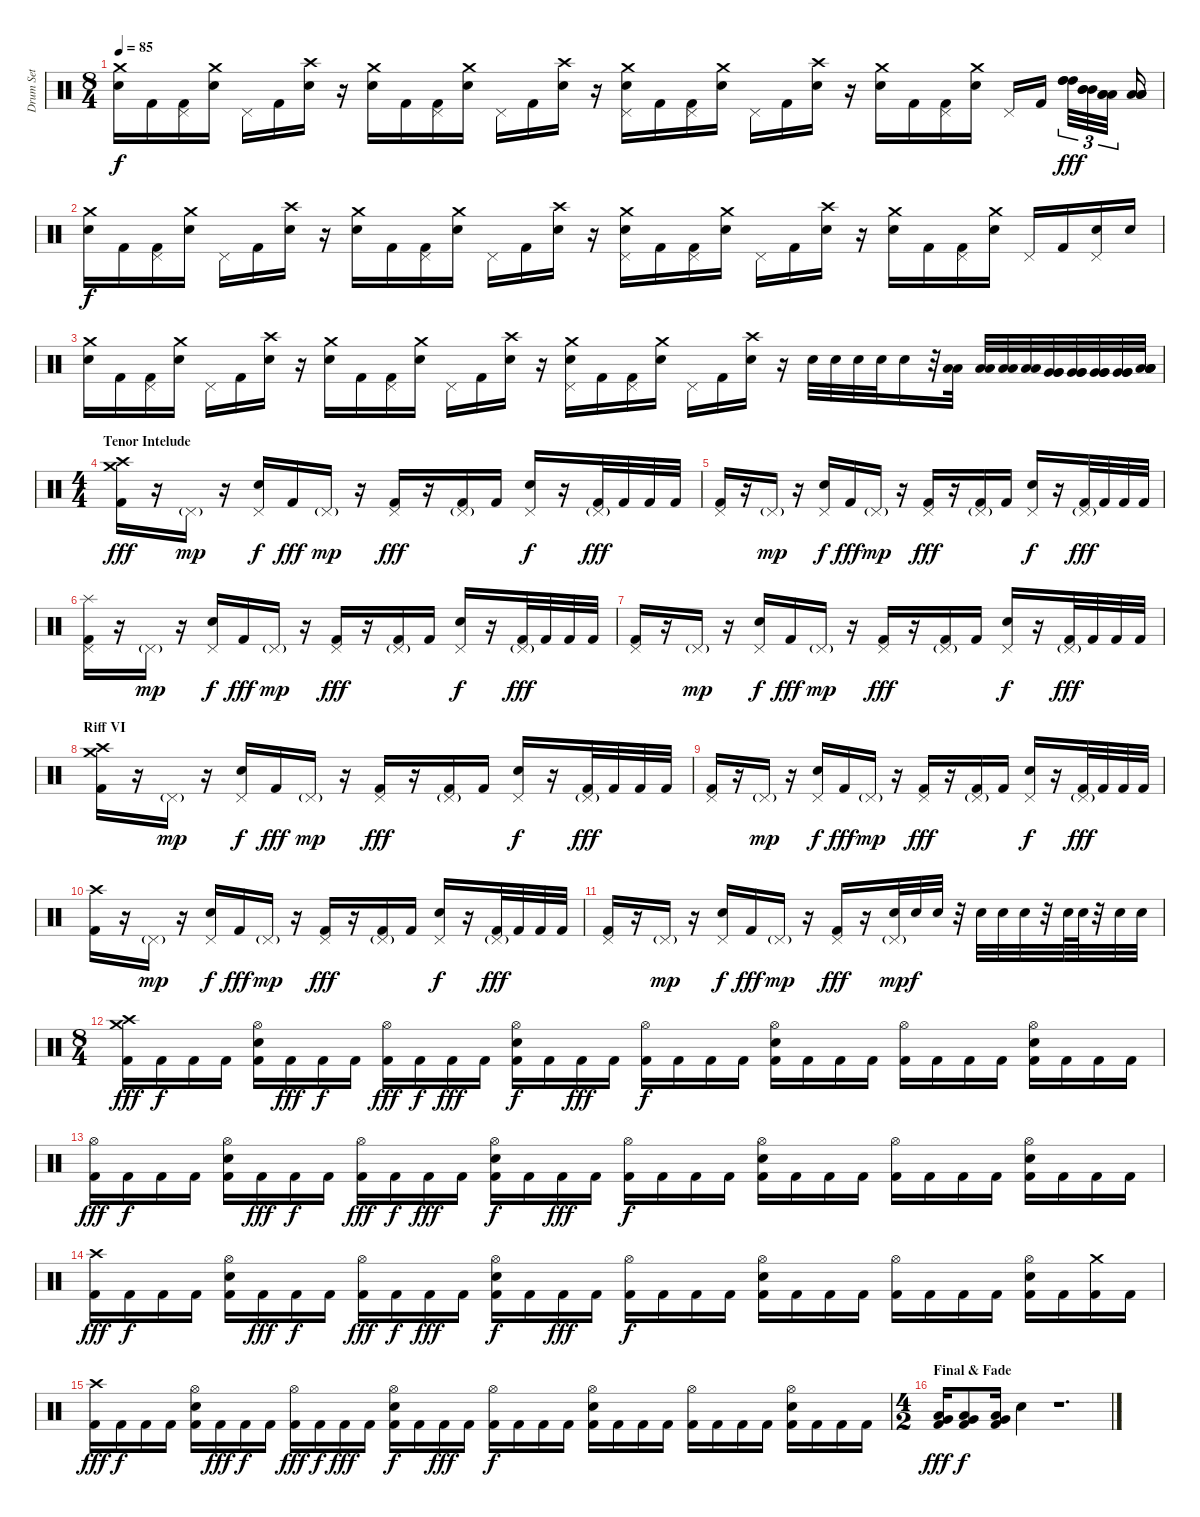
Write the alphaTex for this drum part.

\track ("Drum Set" "Drum Set") {instrument percussion}
\staff {score}
\articulation defaults
\ts (8 4)
\tempo 85
\clef neutral
\ks c
("Crash medium (hit)" "Snare (hit) 2").16{dy f} "Kick (hit) 2".16 ("Pedal Hi-Hat (hit)" "Kick (hit) 2").16 ("Crash medium (hit)" "Snare (hit) 2").16 "Pedal Hi-Hat (hit)".16 "Kick (hit) 2".16 ("Crash high (hit)" "Snare (hit) 2").16 r.16 ("Crash medium (hit)" "Snare (hit) 2").16 "Kick (hit) 2".16 ("Pedal Hi-Hat (hit)" "Kick (hit) 2").16 ("Crash medium (hit)" "Snare (hit) 2").16 "Pedal Hi-Hat (hit)".16 "Kick (hit) 2".16 ("Crash high (hit)" "Snare (hit) 2").16 r.16 ("Crash medium (hit)" "Pedal Hi-Hat (hit)" "Snare (hit) 2").16 "Kick (hit) 2".16 ("Pedal Hi-Hat (hit)" "Kick (hit) 2").16 ("Crash medium (hit)" "Snare (hit) 2").16 "Pedal Hi-Hat (hit)".16 "Kick (hit) 2".16 ("Crash high (hit)" "Snare (hit) 2").16 r.16 ("Crash medium (hit)" "Snare (hit) 2").16 "Kick (hit) 2".16 ("Pedal Hi-Hat (hit)" "Kick (hit) 2").16 ("Crash medium (hit)" "Snare (hit) 2").16 "Pedal Hi-Hat (hit)".16 "Kick (hit) 2".16 ("High Tom (hit)" "High Tom (hit)" "High Tom (hit)").32{tu (3 2) dy fff} ("Mid Tom (hit)" "Mid Tom (hit)" "Mid Tom (hit)").32{tu (3 2)} ("Low Tom (hit)" "Low Tom (hit)" "Low Tom (hit)").32{tu (3 2)} ("Low Tom (hit)" "Low Tom (hit)" "Low Tom (hit)").16 |
("Crash medium (hit)" "Snare (hit) 2").16{dy f} "Kick (hit) 2".16 ("Pedal Hi-Hat (hit)" "Kick (hit) 2").16 ("Crash medium (hit)" "Snare (hit) 2").16 "Pedal Hi-Hat (hit)".16 "Kick (hit) 2".16 ("Crash high (hit)" "Snare (hit) 2").16 r.16 ("Crash medium (hit)" "Snare (hit) 2").16 "Kick (hit) 2".16 ("Pedal Hi-Hat (hit)" "Kick (hit) 2").16 ("Crash medium (hit)" "Snare (hit) 2").16 "Pedal Hi-Hat (hit)".16 "Kick (hit) 2".16 ("Crash high (hit)" "Snare (hit) 2").16 r.16 ("Crash medium (hit)" "Pedal Hi-Hat (hit)" "Snare (hit) 2").16 "Kick (hit) 2".16 ("Pedal Hi-Hat (hit)" "Kick (hit) 2").16 ("Crash medium (hit)" "Snare (hit) 2").16 "Pedal Hi-Hat (hit)".16 "Kick (hit) 2".16 ("Crash high (hit)" "Snare (hit) 2").16 r.16 ("Crash medium (hit)" "Snare (hit) 2").16 "Kick (hit) 2".16 ("Pedal Hi-Hat (hit)" "Kick (hit) 2").16 ("Crash medium (hit)" "Snare (hit) 2").16 "Pedal Hi-Hat (hit)".16 "Kick (hit) 2".16 ("Pedal Hi-Hat (hit)" "Snare (hit) 2").16 "Snare (hit) 2".16 |
("Crash medium (hit)" "Snare (hit) 2").16 "Kick (hit) 2".16 ("Pedal Hi-Hat (hit)" "Kick (hit) 2").16 ("Crash medium (hit)" "Snare (hit) 2").16 "Pedal Hi-Hat (hit)".16 "Kick (hit) 2".16 ("Crash high (hit)" "Snare (hit) 2").16 r.16 ("Crash medium (hit)" "Snare (hit) 2").16 "Kick (hit) 2".16 ("Pedal Hi-Hat (hit)" "Kick (hit) 2").16 ("Crash medium (hit)" "Snare (hit) 2").16 "Pedal Hi-Hat (hit)".16 "Kick (hit) 2".16 ("Crash high (hit)" "Snare (hit) 2").16 r.16 ("Crash medium (hit)" "Pedal Hi-Hat (hit)" "Snare (hit) 2").16 "Kick (hit) 2".16 ("Pedal Hi-Hat (hit)" "Kick (hit) 2").16 ("Crash medium (hit)" "Snare (hit) 2").16 "Pedal Hi-Hat (hit)".16 "Kick (hit) 2".16 ("Crash high (hit)" "Snare (hit) 2").16 r.16 "Snare (hit) 2".32 "Snare (hit) 2".32 "Snare (hit) 2".32 "Snare (hit) 2".32 "Snare (hit) 2".16 r.32 ("Low Tom (hit)" "Low Tom (hit)").32 ("Low Tom (hit)" "Low Tom (hit)").32 ("Low Tom (hit)" "Low Tom (hit)").32 ("Low Tom (hit)" "Low Tom (hit)").32 ("Very Low Tom (hit)" "Very Low Tom (hit)" "Very Low Tom (hit)").32 ("Very Low Tom (hit)" "Very Low Tom (hit)" "Very Low Tom (hit)").32 ("Very Low Tom (hit)" "Very Low Tom (hit)" "Very Low Tom (hit)").32 ("Very Low Tom (hit)" "Very Low Tom (hit)" "Very Low Tom (hit)").32 ("Low Floor Tom (hit)" "Low Floor Tom (hit)" "Low Floor Tom (hit)" "Low Floor Tom (hit)").32 |
\ts (4 4)
\section ("" "Tenor Intelude")
("Crash high (hit)" "Crash medium (hit)" "Kick (hit) 2").16{dy fff} r.16 "Pedal Hi-Hat (hit)"{g}.16{dy mp} r.16 ("Pedal Hi-Hat (hit)" "Snare (hit) 2").16{dy f} "Kick (hit) 2".16{dy fff} "Pedal Hi-Hat (hit)"{g}.16{dy mp} r.16 ("Pedal Hi-Hat (hit)" "Kick (hit) 2").16{dy fff} r.16 ("Pedal Hi-Hat (hit)"{g} "Kick (hit) 2").16 "Kick (hit) 2".16 ("Pedal Hi-Hat (hit)" "Snare (hit) 2").16{dy f} r.16 ("Pedal Hi-Hat (hit)"{g} "Kick (hit) 2").32{dy fff} "Kick (hit) 2".32 "Kick (hit) 2".32 "Kick (hit) 2".32 |
("Pedal Hi-Hat (hit)" "Kick (hit) 2").16 r.16 "Pedal Hi-Hat (hit)"{g}.16{dy mp} r.16 ("Pedal Hi-Hat (hit)" "Snare (hit) 2").16{dy f} "Kick (hit) 2".16{dy fff} "Pedal Hi-Hat (hit)"{g}.16{dy mp} r.16 ("Pedal Hi-Hat (hit)" "Kick (hit) 2").16{dy fff} r.16 ("Pedal Hi-Hat (hit)"{g} "Kick (hit) 2").16 "Kick (hit) 2".16 ("Pedal Hi-Hat (hit)" "Snare (hit) 2").16{dy f} r.16 ("Pedal Hi-Hat (hit)"{g} "Kick (hit) 2").32{dy fff} "Kick (hit) 2".32 "Kick (hit) 2".32 "Kick (hit) 2".32 |
("Splash (hit)" "Pedal Hi-Hat (hit)" "Kick (hit) 2").16 r.16 "Pedal Hi-Hat (hit)"{g}.16{dy mp} r.16 ("Pedal Hi-Hat (hit)" "Snare (hit) 2").16{dy f} "Kick (hit) 2".16{dy fff} "Pedal Hi-Hat (hit)"{g}.16{dy mp} r.16 ("Pedal Hi-Hat (hit)" "Kick (hit) 2").16{dy fff} r.16 ("Pedal Hi-Hat (hit)"{g} "Kick (hit) 2").16 "Kick (hit) 2".16 ("Pedal Hi-Hat (hit)" "Snare (hit) 2").16{dy f} r.16 ("Pedal Hi-Hat (hit)"{g} "Kick (hit) 2").32{dy fff} "Kick (hit) 2".32 "Kick (hit) 2".32 "Kick (hit) 2".32 |
("Pedal Hi-Hat (hit)" "Kick (hit) 2").16 r.16 "Pedal Hi-Hat (hit)"{g}.16{dy mp} r.16 ("Pedal Hi-Hat (hit)" "Snare (hit) 2").16{dy f} "Kick (hit) 2".16{dy fff} "Pedal Hi-Hat (hit)"{g}.16{dy mp} r.16 ("Pedal Hi-Hat (hit)" "Kick (hit) 2").16{dy fff} r.16 ("Pedal Hi-Hat (hit)"{g} "Kick (hit) 2").16 "Kick (hit) 2".16 ("Pedal Hi-Hat (hit)" "Snare (hit) 2").16{dy f} r.16 ("Pedal Hi-Hat (hit)"{g} "Kick (hit) 2").32{dy fff} "Kick (hit) 2".32 "Kick (hit) 2".32 "Kick (hit) 2".32 |
\section ("" "Riff VI")
("Crash high (hit)" "Crash medium (hit)" "Kick (hit) 2").16 r.16 "Pedal Hi-Hat (hit)"{g}.16{dy mp} r.16 ("Pedal Hi-Hat (hit)" "Snare (hit) 2").16{dy f} "Kick (hit) 2".16{dy fff} "Pedal Hi-Hat (hit)"{g}.16{dy mp} r.16 ("Pedal Hi-Hat (hit)" "Kick (hit) 2").16{dy fff} r.16 ("Pedal Hi-Hat (hit)"{g} "Kick (hit) 2").16 "Kick (hit) 2".16 ("Pedal Hi-Hat (hit)" "Snare (hit) 2").16{dy f} r.16 ("Pedal Hi-Hat (hit)"{g} "Kick (hit) 2").32{dy fff} "Kick (hit) 2".32 "Kick (hit) 2".32 "Kick (hit) 2".32 |
("Pedal Hi-Hat (hit)" "Kick (hit) 2").16 r.16 "Pedal Hi-Hat (hit)"{g}.16{dy mp} r.16 ("Pedal Hi-Hat (hit)" "Snare (hit) 2").16{dy f} "Kick (hit) 2".16{dy fff} "Pedal Hi-Hat (hit)"{g}.16{dy mp} r.16 ("Pedal Hi-Hat (hit)" "Kick (hit) 2").16{dy fff} r.16 ("Pedal Hi-Hat (hit)"{g} "Kick (hit) 2").16 "Kick (hit) 2".16 ("Pedal Hi-Hat (hit)" "Snare (hit) 2").16{dy f} r.16 ("Pedal Hi-Hat (hit)"{g} "Kick (hit) 2").32{dy fff} "Kick (hit) 2".32 "Kick (hit) 2".32 "Kick (hit) 2".32 |
("Crash high (hit)" "Kick (hit) 2").16 r.16 "Pedal Hi-Hat (hit)"{g}.16{dy mp} r.16 ("Pedal Hi-Hat (hit)" "Snare (hit) 2").16{dy f} "Kick (hit) 2".16{dy fff} "Pedal Hi-Hat (hit)"{g}.16{dy mp} r.16 ("Pedal Hi-Hat (hit)" "Kick (hit) 2").16{dy fff} r.16 ("Pedal Hi-Hat (hit)"{g} "Kick (hit) 2").16 "Kick (hit) 2".16 ("Pedal Hi-Hat (hit)" "Snare (hit) 2").16{dy f} r.16 ("Pedal Hi-Hat (hit)"{g} "Kick (hit) 2").32{dy fff} "Kick (hit) 2".32 "Kick (hit) 2".32 "Kick (hit) 2".32 |
("Pedal Hi-Hat (hit)" "Kick (hit) 2").16 r.16 "Pedal Hi-Hat (hit)"{g}.16{dy mp} r.16 ("Pedal Hi-Hat (hit)" "Snare (hit) 2").16{dy f} "Kick (hit) 2".16{dy fff} "Pedal Hi-Hat (hit)"{g}.16{dy mp} r.16 ("Pedal Hi-Hat (hit)" "Kick (hit) 2").16{dy fff} r.16 ("Pedal Hi-Hat (hit)"{g} "Snare (hit) 2").32{dy mp} "Snare (hit) 2".32{dy f} "Snare (hit) 2".32 r.32 "Snare (hit) 2".32 "Snare (hit) 2".32 "Snare (hit) 2".32 r.32 "Snare (hit) 2".64 "Snare (hit) 2".64 r.32 "Snare (hit) 2".32 "Snare (hit) 2".32 |
\ts (8 4)
("Crash high (hit)" "Crash medium (hit)" "Kick (hit) 2").16{dy fff} "Kick (hit) 2".16{dy f} "Kick (hit) 2".16 "Kick (hit) 2".16 ("Hi-Hat (open)" "Snare (hit) 2" "Kick (hit) 2").16 "Kick (hit) 2".16{dy fff} "Kick (hit) 2".16{dy f} "Kick (hit) 2".16 ("Hi-Hat (open)" "Kick (hit) 2").16{dy fff} "Kick (hit) 2".16{dy f} "Kick (hit) 2".16{dy fff} "Kick (hit) 2".16 ("Hi-Hat (open)" "Snare (hit) 2" "Kick (hit) 2").16{dy f} "Kick (hit) 2".16 "Kick (hit) 2".16{dy fff} "Kick (hit) 2".16 ("Hi-Hat (open)" "Kick (hit) 2").16{dy f} "Kick (hit) 2".16 "Kick (hit) 2".16 "Kick (hit) 2".16 ("Hi-Hat (open)" "Snare (hit) 2" "Kick (hit) 2").16 "Kick (hit) 2".16 "Kick (hit) 2".16 "Kick (hit) 2".16 ("Hi-Hat (open)" "Kick (hit) 2").16 "Kick (hit) 2".16 "Kick (hit) 2".16 "Kick (hit) 2".16 ("Hi-Hat (open)" "Snare (hit) 2" "Kick (hit) 2").16 "Kick (hit) 2".16 "Kick (hit) 2".16 "Kick (hit) 2".16 |
("Hi-Hat (open)" "Kick (hit) 2").16{dy fff} "Kick (hit) 2".16{dy f} "Kick (hit) 2".16 "Kick (hit) 2".16 ("Hi-Hat (open)" "Snare (hit) 2" "Kick (hit) 2").16 "Kick (hit) 2".16{dy fff} "Kick (hit) 2".16{dy f} "Kick (hit) 2".16 ("Hi-Hat (open)" "Kick (hit) 2").16{dy fff} "Kick (hit) 2".16{dy f} "Kick (hit) 2".16{dy fff} "Kick (hit) 2".16 ("Hi-Hat (open)" "Snare (hit) 2" "Kick (hit) 2").16{dy f} "Kick (hit) 2".16 "Kick (hit) 2".16{dy fff} "Kick (hit) 2".16 ("Hi-Hat (open)" "Kick (hit) 2").16{dy f} "Kick (hit) 2".16 "Kick (hit) 2".16 "Kick (hit) 2".16 ("Hi-Hat (open)" "Snare (hit) 2" "Kick (hit) 2").16 "Kick (hit) 2".16 "Kick (hit) 2".16 "Kick (hit) 2".16 ("Hi-Hat (open)" "Kick (hit) 2").16 "Kick (hit) 2".16 "Kick (hit) 2".16 "Kick (hit) 2".16 ("Hi-Hat (open)" "Snare (hit) 2" "Kick (hit) 2").16 "Kick (hit) 2".16 "Kick (hit) 2".16 "Kick (hit) 2".16 |
("Crash high (hit)" "Kick (hit) 2").16{dy fff} "Kick (hit) 2".16{dy f} "Kick (hit) 2".16 "Kick (hit) 2".16 ("Hi-Hat (open)" "Snare (hit) 2" "Kick (hit) 2").16 "Kick (hit) 2".16{dy fff} "Kick (hit) 2".16{dy f} "Kick (hit) 2".16 ("Hi-Hat (open)" "Kick (hit) 2").16{dy fff} "Kick (hit) 2".16{dy f} "Kick (hit) 2".16{dy fff} "Kick (hit) 2".16 ("Hi-Hat (open)" "Snare (hit) 2" "Kick (hit) 2").16{dy f} "Kick (hit) 2".16 "Kick (hit) 2".16{dy fff} "Kick (hit) 2".16 ("Hi-Hat (open)" "Kick (hit) 2").16{dy f} "Kick (hit) 2".16 "Kick (hit) 2".16 "Kick (hit) 2".16 ("Hi-Hat (open)" "Snare (hit) 2" "Kick (hit) 2").16 "Kick (hit) 2".16 "Kick (hit) 2".16 "Kick (hit) 2".16 ("Hi-Hat (open)" "Kick (hit) 2").16 "Kick (hit) 2".16 "Kick (hit) 2".16 "Kick (hit) 2".16 ("Hi-Hat (open)" "Snare (hit) 2" "Kick (hit) 2").16 "Kick (hit) 2".16 ("Crash medium (hit)" "Kick (hit) 2").16 "Kick (hit) 2".16 |
("Crash high (hit)" "Kick (hit) 2").16{dy fff} "Kick (hit) 2".16{dy f} "Kick (hit) 2".16 "Kick (hit) 2".16 ("Hi-Hat (open)" "Snare (hit) 2" "Kick (hit) 2").16 "Kick (hit) 2".16{dy fff} "Kick (hit) 2".16{dy f} "Kick (hit) 2".16 ("Hi-Hat (open)" "Kick (hit) 2").16{dy fff} "Kick (hit) 2".16{dy f} "Kick (hit) 2".16{dy fff} "Kick (hit) 2".16 ("Hi-Hat (open)" "Snare (hit) 2" "Kick (hit) 2").16{dy f} "Kick (hit) 2".16 "Kick (hit) 2".16{dy fff} "Kick (hit) 2".16 ("Hi-Hat (open)" "Kick (hit) 2").16{dy f} "Kick (hit) 2".16 "Kick (hit) 2".16 "Kick (hit) 2".16 ("Hi-Hat (open)" "Snare (hit) 2" "Kick (hit) 2").16 "Kick (hit) 2".16 "Kick (hit) 2".16 "Kick (hit) 2".16 ("Hi-Hat (open)" "Kick (hit) 2").16 "Kick (hit) 2".16 "Kick (hit) 2".16 "Kick (hit) 2".16 ("Hi-Hat (open)" "Snare (hit) 2" "Kick (hit) 2").16 "Kick (hit) 2".16 "Kick (hit) 2".16 "Kick (hit) 2".16 |
\ts (4 2)
\section ("" "Final & Fade")
("Very Low Tom (hit)" "Low Floor Tom (hit)" "Kick (hit) 2").16{dy fff} ("Very Low Tom (hit)" "Low Floor Tom (hit)" "Kick (hit) 2").8{dy f} ("Very Low Tom (hit)" "Low Floor Tom (hit)" "Kick (hit) 2").16 "Snare (hit) 2".4 r.1{d}
